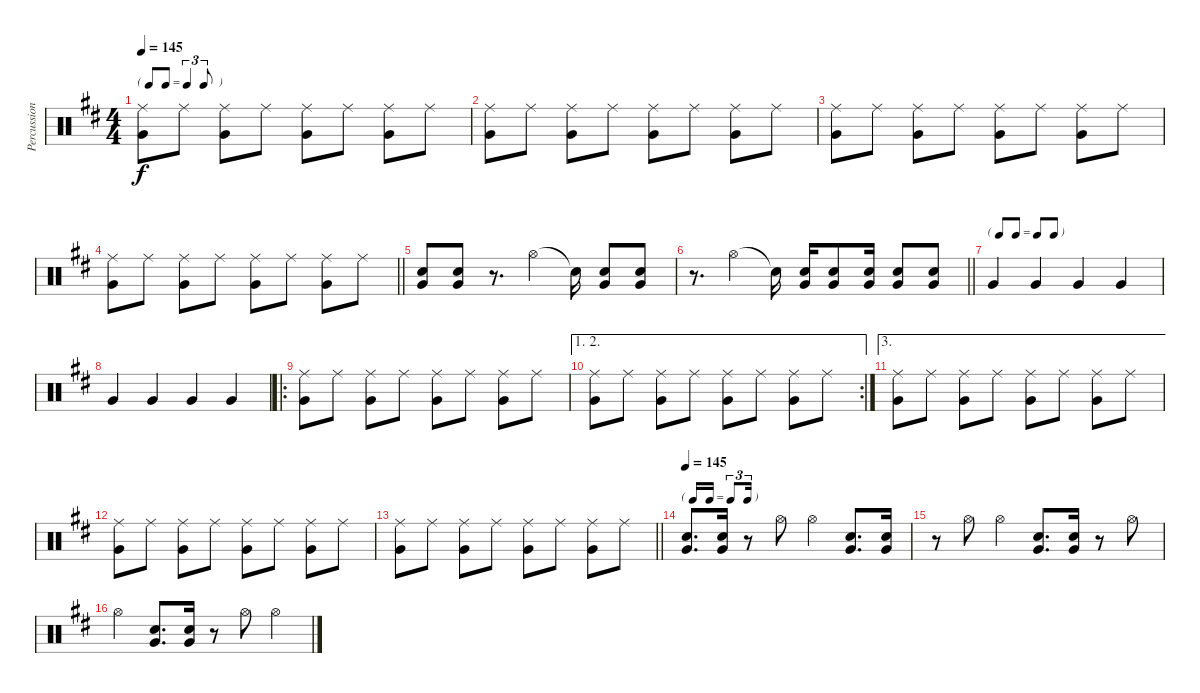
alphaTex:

\track ("Percussion" "Percussion") {instrument percussion}
\staff {score}
\articulation defaults
\ts (4 4)
\tf triplet8th
\tempo 145
\clef neutral
\ks d
("Very Low Tom (hit)" "Ride (middle)").8{dy f} "Ride (middle)".8 ("Very Low Tom (hit)" "Ride (middle)").8 "Ride (middle)".8 ("Very Low Tom (hit)" "Ride (middle)").8 "Ride (middle)".8 ("Very Low Tom (hit)" "Ride (middle)").8 "Ride (middle)".8 |
("Very Low Tom (hit)" "Ride (middle)").8 "Ride (middle)".8 ("Very Low Tom (hit)" "Ride (middle)").8 "Ride (middle)".8 ("Very Low Tom (hit)" "Ride (middle)").8 "Ride (middle)".8 ("Very Low Tom (hit)" "Ride (middle)").8 "Ride (middle)".8 |
("Very Low Tom (hit)" "Ride (middle)").8 "Ride (middle)".8 ("Very Low Tom (hit)" "Ride (middle)").8 "Ride (middle)".8 ("Very Low Tom (hit)" "Ride (middle)").8 "Ride (middle)".8 ("Very Low Tom (hit)" "Ride (middle)").8 "Ride (middle)".8 |
\barLineRight lightlight
("Very Low Tom (hit)" "Ride (middle)").8 "Ride (middle)".8 ("Very Low Tom (hit)" "Ride (middle)").8 "Ride (middle)".8 ("Very Low Tom (hit)" "Ride (middle)").8 "Ride (middle)".8 ("Very Low Tom (hit)" "Ride (middle)").8 "Ride (middle)".8 |
("Snare (hit) 2" "Very Low Tom (hit)").8 ("Snare (hit) 2" "Very Low Tom (hit)").8 r.8{d} "Hi-Hat (open)".4 "Snare (hit)"{t}.16 ("Snare (hit) 2" "Very Low Tom (hit)").8 ("Snare (hit) 2" "Very Low Tom (hit)").8 |
\barLineRight lightlight
r.8{d} "Hi-Hat (open)".4 "Snare (hit)"{t}.16 ("Snare (hit) 2" "Very Low Tom (hit)").16 ("Snare (hit) 2" "Very Low Tom (hit)").8 ("Snare (hit) 2" "Very Low Tom (hit)").16 ("Snare (hit) 2" "Very Low Tom (hit)").8 ("Snare (hit) 2" "Very Low Tom (hit)").8 |
\tf none "Very Low Tom (hit)".4 "Very Low Tom (hit)".4 "Very Low Tom (hit)".4 "Very Low Tom (hit)".4
|
"Very Low Tom (hit)".4 "Very Low Tom (hit)".4 "Very Low Tom (hit)".4 "Very Low Tom (hit)".4 |
\ro
("Very Low Tom (hit)" "Ride (middle)").8 "Ride (middle)".8 ("Very Low Tom (hit)" "Ride (middle)").8 "Ride (middle)".8 ("Very Low Tom (hit)" "Ride (middle)").8 "Ride (middle)".8 ("Very Low Tom (hit)" "Ride (middle)").8 "Ride (middle)".8 |
\ae (1 2)
\rc 2
("Very Low Tom (hit)" "Ride (middle)").8 "Ride (middle)".8 ("Very Low Tom (hit)" "Ride (middle)").8 "Ride (middle)".8 ("Very Low Tom (hit)" "Ride (middle)").8 "Ride (middle)".8 ("Very Low Tom (hit)" "Ride (middle)").8 "Ride (middle)".8 |
\ae 3
("Very Low Tom (hit)" "Ride (middle)").8 "Ride (middle)".8 ("Very Low Tom (hit)" "Ride (middle)").8 "Ride (middle)".8 ("Very Low Tom (hit)" "Ride (middle)").8 "Ride (middle)".8 ("Very Low Tom (hit)" "Ride (middle)").8 "Ride (middle)".8 |
("Very Low Tom (hit)" "Ride (middle)").8 "Ride (middle)".8 ("Very Low Tom (hit)" "Ride (middle)").8 "Ride (middle)".8 ("Very Low Tom (hit)" "Ride (middle)").8 "Ride (middle)".8 ("Very Low Tom (hit)" "Ride (middle)").8 "Ride (middle)".8 |
\barLineRight lightlight
("Very Low Tom (hit)" "Ride (middle)").8 "Ride (middle)".8 ("Very Low Tom (hit)" "Ride (middle)").8 "Ride (middle)".8 ("Very Low Tom (hit)" "Ride (middle)").8 "Ride (middle)".8 ("Very Low Tom (hit)" "Ride (middle)").8 "Ride (middle)".8 |
\tf triplet16th
\tempo 145
("Snare (hit) 2" "Very Low Tom (hit)").8{d} ("Snare (hit) 2" "Very Low Tom (hit)").16 r.8 "Hi-Hat (open)".8 "Hi-Hat (open)".4 ("Snare (hit) 2" "Very Low Tom (hit)").8{d} ("Snare (hit) 2" "Very Low Tom (hit)").16 |
r.8 "Hi-Hat (open)".8 "Hi-Hat (open)".4 ("Snare (hit) 2" "Very Low Tom (hit)").8{d} ("Snare (hit) 2" "Very Low Tom (hit)").16 r.8 "Hi-Hat (open)".8 |
"Hi-Hat (open)".4 ("Snare (hit) 2" "Very Low Tom (hit)").8{d} ("Snare (hit) 2" "Very Low Tom (hit)").16 r.8 "Hi-Hat (open)".8 "Hi-Hat (open)".4
